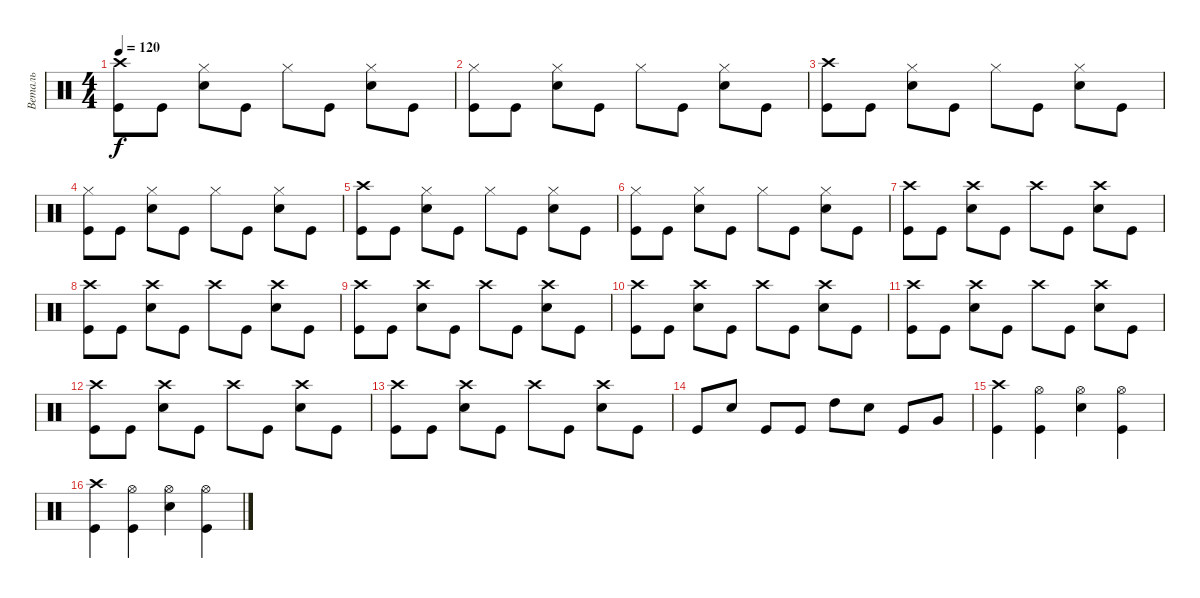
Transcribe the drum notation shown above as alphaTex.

\track ("Веталь" "Веталь") {instrument percussion}
\staff {score}
\articulation defaults
\ts (4 4)
\tempo 120
\clef neutral
\ks c
("Crash high (hit)" "Kick (hit)").8{dy f} "Kick (hit)".8 ("Hi-Hat (closed)" "Snare (hit) 2").8 "Kick (hit)".8 "Hi-Hat (closed)".8 "Kick (hit)".8 ("Hi-Hat (closed)" "Snare (hit) 2").8 "Kick (hit)".8 |
("Hi-Hat (closed)" "Kick (hit)").8 "Kick (hit)".8 ("Hi-Hat (closed)" "Snare (hit) 2").8 "Kick (hit)".8 "Hi-Hat (closed)".8 "Kick (hit)".8 ("Hi-Hat (closed)" "Snare (hit) 2").8 "Kick (hit)".8 |
("Crash high (hit)" "Kick (hit)").8 "Kick (hit)".8 ("Hi-Hat (closed)" "Snare (hit) 2").8 "Kick (hit)".8 "Hi-Hat (closed)".8 "Kick (hit)".8 ("Hi-Hat (closed)" "Snare (hit) 2").8 "Kick (hit)".8 |
("Hi-Hat (closed)" "Kick (hit)").8 "Kick (hit)".8 ("Hi-Hat (closed)" "Snare (hit) 2").8 "Kick (hit)".8 "Hi-Hat (closed)".8 "Kick (hit)".8 ("Hi-Hat (closed)" "Snare (hit) 2").8 "Kick (hit)".8 |
("Crash high (hit)" "Kick (hit)").8 "Kick (hit)".8 ("Hi-Hat (closed)" "Snare (hit) 2").8 "Kick (hit)".8 "Hi-Hat (closed)".8 "Kick (hit)".8 ("Hi-Hat (closed)" "Snare (hit) 2").8 "Kick (hit)".8 |
("Hi-Hat (closed)" "Kick (hit)").8 "Kick (hit)".8 ("Hi-Hat (closed)" "Snare (hit) 2").8 "Kick (hit)".8 "Hi-Hat (closed)".8 "Kick (hit)".8 ("Hi-Hat (closed)" "Snare (hit) 2").8 "Kick (hit)".8 |
("Crash high (hit)" "Kick (hit)").8 "Kick (hit)".8 ("Crash high (hit)" "Snare (hit) 2").8 "Kick (hit)".8 "Crash high (hit)".8 "Kick (hit)".8 ("Crash high (hit)" "Snare (hit) 2").8 "Kick (hit)".8 |
("Crash high (hit)" "Kick (hit)").8 "Kick (hit)".8 ("Crash high (hit)" "Snare (hit) 2").8 "Kick (hit)".8 "Crash high (hit)".8 "Kick (hit)".8 ("Crash high (hit)" "Snare (hit) 2").8 "Kick (hit)".8 |
("Crash high (hit)" "Kick (hit)").8 "Kick (hit)".8 ("Crash high (hit)" "Snare (hit) 2").8 "Kick (hit)".8 "Crash high (hit)".8 "Kick (hit)".8 ("Crash high (hit)" "Snare (hit) 2").8 "Kick (hit)".8 |
("Crash high (hit)" "Kick (hit)").8 "Kick (hit)".8 ("Crash high (hit)" "Snare (hit) 2").8 "Kick (hit)".8 "Crash high (hit)".8 "Kick (hit)".8 ("Crash high (hit)" "Snare (hit) 2").8 "Kick (hit)".8 |
("Crash high (hit)" "Kick (hit)").8 "Kick (hit)".8 ("Crash high (hit)" "Snare (hit) 2").8 "Kick (hit)".8 "Crash high (hit)".8 "Kick (hit)".8 ("Crash high (hit)" "Snare (hit) 2").8 "Kick (hit)".8 |
("Crash high (hit)" "Kick (hit)").8 "Kick (hit)".8 ("Crash high (hit)" "Snare (hit) 2").8 "Kick (hit)".8 "Crash high (hit)".8 "Kick (hit)".8 ("Crash high (hit)" "Snare (hit) 2").8 "Kick (hit)".8 |
("Crash high (hit)" "Kick (hit)").8 "Kick (hit)".8 ("Crash high (hit)" "Snare (hit) 2").8 "Kick (hit)".8 "Crash high (hit)".8 "Kick (hit)".8 ("Crash high (hit)" "Snare (hit) 2").8 "Kick (hit)".8 |
"Kick (hit)".8 "Snare (hit) 2".8 "Kick (hit)".8 "Kick (hit)".8 "High Tom (hit)".8 "Snare (hit) 2".8 "Kick (hit)".8 "Very Low Tom (hit)".8 |
("Crash high (hit)" "Kick (hit)").4 ("Hi-Hat (open)" "Kick (hit)").4 ("Hi-Hat (open)" "Snare (hit) 2").4 ("Hi-Hat (open)" "Kick (hit)").4 |
("Crash high (hit)" "Kick (hit)").4 ("Hi-Hat (open)" "Kick (hit)").4 ("Hi-Hat (open)" "Snare (hit) 2").4 ("Hi-Hat (open)" "Kick (hit)").4
